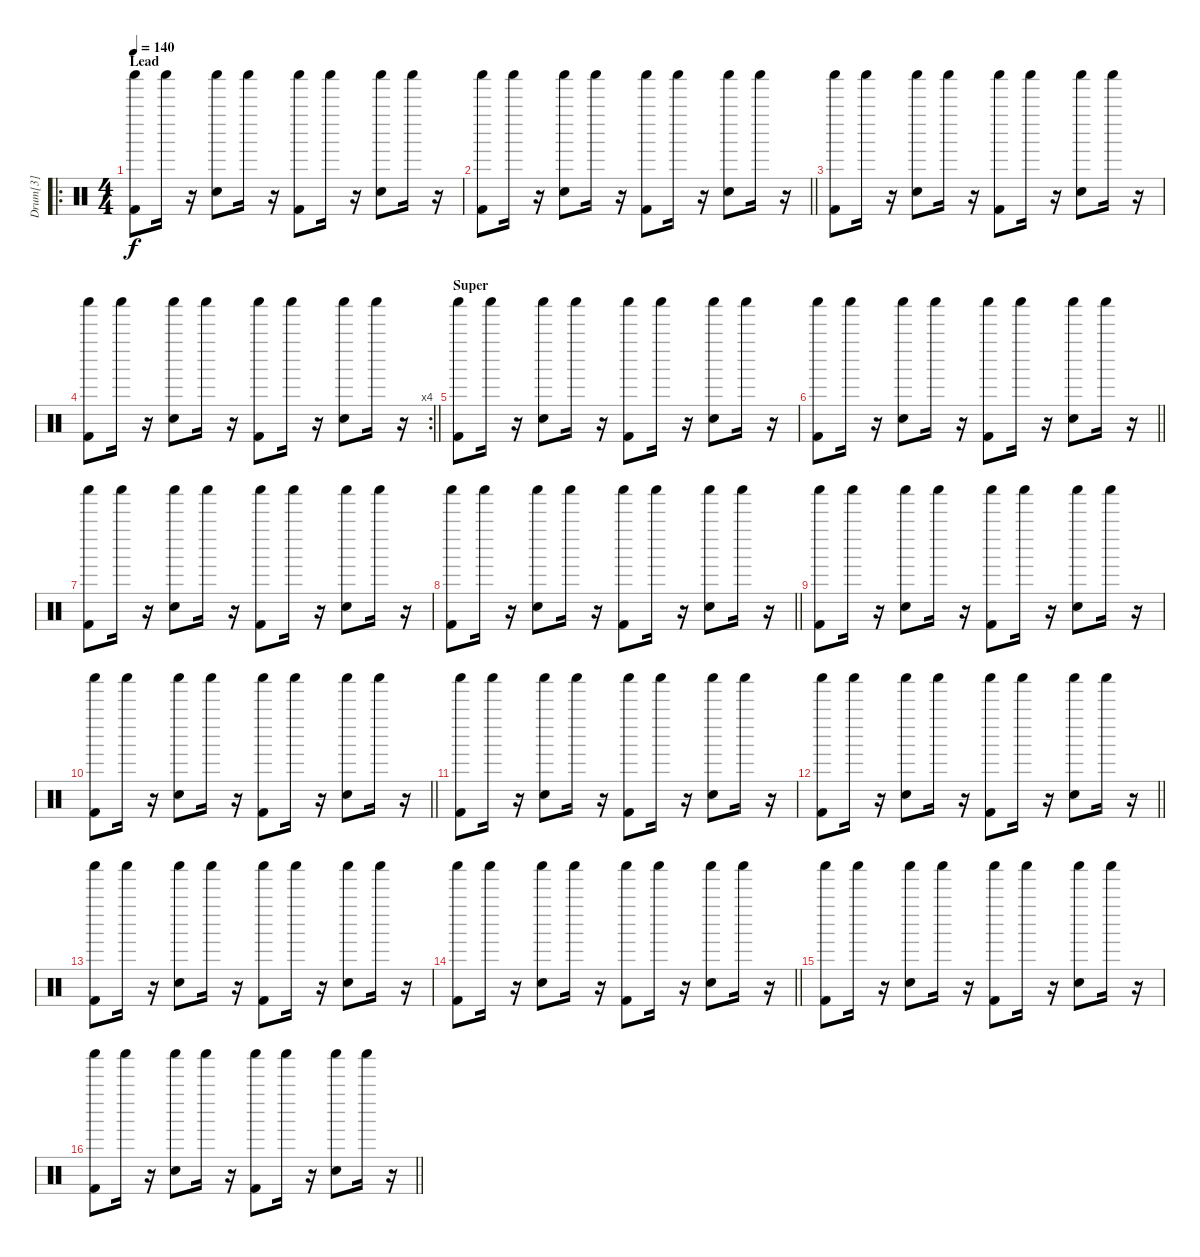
\track ("Drum[3]" "Drum[3]") {instrument percussion}
\staff {score}
\articulation defaults
\ro
\ts (4 4)
\section ("" "Lead")
\tempo 140
\clef neutral
\ks c
("Kick (hit) 2" "Shaker (hit)").8{dy f} "Shaker (hit)".16 r.16 ("Electric Snare (hit)" "Shaker (hit)").8 "Shaker (hit)".16 r.16 ("Kick (hit) 2" "Shaker (hit)").8 "Shaker (hit)".16 r.16 ("Electric Snare (hit)" "Shaker (hit)").8 "Shaker (hit)".16 r.16 |
\barLineRight lightlight
("Kick (hit) 2" "Shaker (hit)").8 "Shaker (hit)".16 r.16 ("Electric Snare (hit)" "Shaker (hit)").8 "Shaker (hit)".16 r.16 ("Kick (hit) 2" "Shaker (hit)").8 "Shaker (hit)".16 r.16 ("Electric Snare (hit)" "Shaker (hit)").8 "Shaker (hit)".16 r.16 |
("Kick (hit) 2" "Shaker (hit)").8 "Shaker (hit)".16 r.16 ("Electric Snare (hit)" "Shaker (hit)").8 "Shaker (hit)".16 r.16 ("Kick (hit) 2" "Shaker (hit)").8 "Shaker (hit)".16 r.16 ("Electric Snare (hit)" "Shaker (hit)").8 "Shaker (hit)".16 r.16 |
\rc 4
\barLineRight lightlight
("Kick (hit) 2" "Shaker (hit)").8 "Shaker (hit)".16 r.16 ("Electric Snare (hit)" "Shaker (hit)").8 "Shaker (hit)".16 r.16 ("Kick (hit) 2" "Shaker (hit)").8 "Shaker (hit)".16 r.16 ("Electric Snare (hit)" "Shaker (hit)").8 "Shaker (hit)".16 r.16 |
\section ("" "Super")
("Kick (hit) 2" "Shaker (hit)").8 "Shaker (hit)".16 r.16 ("Electric Snare (hit)" "Shaker (hit)").8 "Shaker (hit)".16 r.16 ("Kick (hit) 2" "Shaker (hit)").8 "Shaker (hit)".16 r.16 ("Electric Snare (hit)" "Shaker (hit)").8 "Shaker (hit)".16 r.16 |
\barLineRight lightlight
("Kick (hit) 2" "Shaker (hit)").8 "Shaker (hit)".16 r.16 ("Electric Snare (hit)" "Shaker (hit)").8 "Shaker (hit)".16 r.16 ("Kick (hit) 2" "Shaker (hit)").8 "Shaker (hit)".16 r.16 ("Electric Snare (hit)" "Shaker (hit)").8 "Shaker (hit)".16 r.16 |
("Kick (hit) 2" "Shaker (hit)").8 "Shaker (hit)".16 r.16 ("Electric Snare (hit)" "Shaker (hit)").8 "Shaker (hit)".16 r.16 ("Kick (hit) 2" "Shaker (hit)").8 "Shaker (hit)".16 r.16 ("Electric Snare (hit)" "Shaker (hit)").8 "Shaker (hit)".16 r.16 |
\barLineRight lightlight
("Kick (hit) 2" "Shaker (hit)").8 "Shaker (hit)".16 r.16 ("Electric Snare (hit)" "Shaker (hit)").8 "Shaker (hit)".16 r.16 ("Kick (hit) 2" "Shaker (hit)").8 "Shaker (hit)".16 r.16 ("Electric Snare (hit)" "Shaker (hit)").8 "Shaker (hit)".16 r.16 |
("Kick (hit) 2" "Shaker (hit)").8 "Shaker (hit)".16 r.16 ("Electric Snare (hit)" "Shaker (hit)").8 "Shaker (hit)".16 r.16 ("Kick (hit) 2" "Shaker (hit)").8 "Shaker (hit)".16 r.16 ("Electric Snare (hit)" "Shaker (hit)").8 "Shaker (hit)".16 r.16 |
\barLineRight lightlight
("Kick (hit) 2" "Shaker (hit)").8 "Shaker (hit)".16 r.16 ("Electric Snare (hit)" "Shaker (hit)").8 "Shaker (hit)".16 r.16 ("Kick (hit) 2" "Shaker (hit)").8 "Shaker (hit)".16 r.16 ("Electric Snare (hit)" "Shaker (hit)").8 "Shaker (hit)".16 r.16 |
("Kick (hit) 2" "Shaker (hit)").8 "Shaker (hit)".16 r.16 ("Electric Snare (hit)" "Shaker (hit)").8 "Shaker (hit)".16 r.16 ("Kick (hit) 2" "Shaker (hit)").8 "Shaker (hit)".16 r.16 ("Electric Snare (hit)" "Shaker (hit)").8 "Shaker (hit)".16 r.16 |
\barLineRight lightlight
("Kick (hit) 2" "Shaker (hit)").8 "Shaker (hit)".16 r.16 ("Electric Snare (hit)" "Shaker (hit)").8 "Shaker (hit)".16 r.16 ("Kick (hit) 2" "Shaker (hit)").8 "Shaker (hit)".16 r.16 ("Electric Snare (hit)" "Shaker (hit)").8 "Shaker (hit)".16 r.16 |
("Kick (hit) 2" "Shaker (hit)").8 "Shaker (hit)".16 r.16 ("Electric Snare (hit)" "Shaker (hit)").8 "Shaker (hit)".16 r.16 ("Kick (hit) 2" "Shaker (hit)").8 "Shaker (hit)".16 r.16 ("Electric Snare (hit)" "Shaker (hit)").8 "Shaker (hit)".16 r.16 |
\barLineRight lightlight
("Kick (hit) 2" "Shaker (hit)").8 "Shaker (hit)".16 r.16 ("Electric Snare (hit)" "Shaker (hit)").8 "Shaker (hit)".16 r.16 ("Kick (hit) 2" "Shaker (hit)").8 "Shaker (hit)".16 r.16 ("Electric Snare (hit)" "Shaker (hit)").8 "Shaker (hit)".16 r.16 |
("Kick (hit) 2" "Shaker (hit)").8 "Shaker (hit)".16 r.16 ("Electric Snare (hit)" "Shaker (hit)").8 "Shaker (hit)".16 r.16 ("Kick (hit) 2" "Shaker (hit)").8 "Shaker (hit)".16 r.16 ("Electric Snare (hit)" "Shaker (hit)").8 "Shaker (hit)".16 r.16 |
\barLineRight lightlight
("Kick (hit) 2" "Shaker (hit)").8 "Shaker (hit)".16 r.16 ("Electric Snare (hit)" "Shaker (hit)").8 "Shaker (hit)".16 r.16 ("Kick (hit) 2" "Shaker (hit)").8 "Shaker (hit)".16 r.16 ("Electric Snare (hit)" "Shaker (hit)").8 "Shaker (hit)".16 r.16
